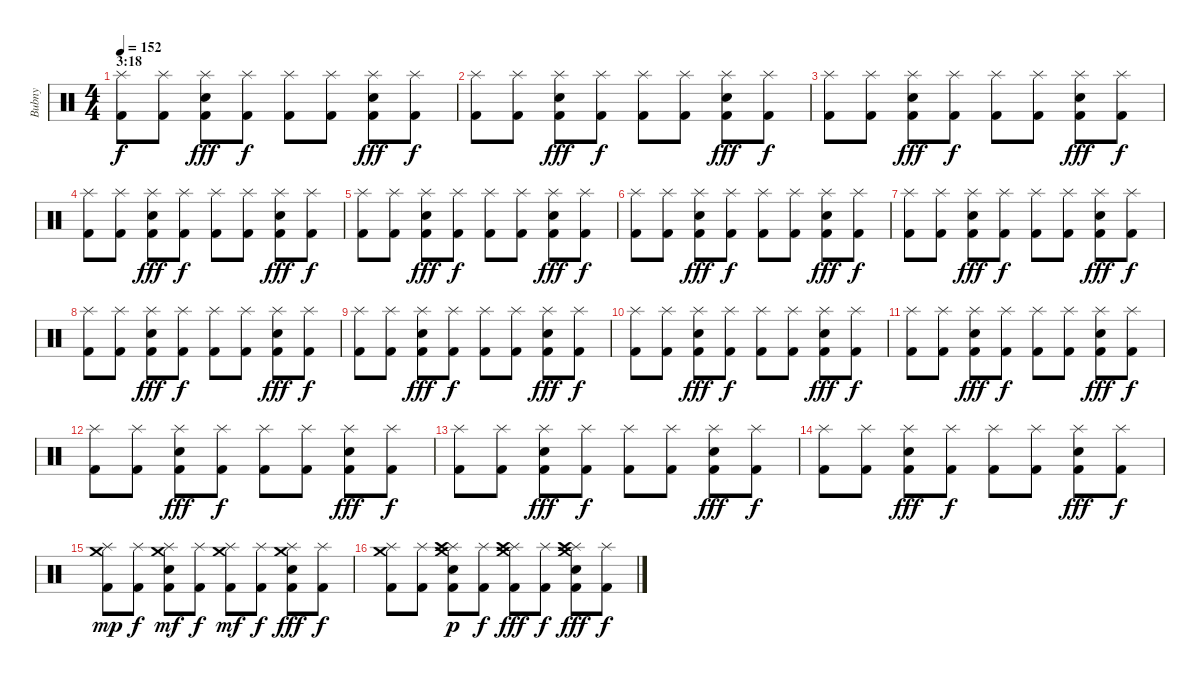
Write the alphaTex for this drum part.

\track ("Bubny" "Bubny") {instrument percussion}
\staff {score}
\articulation defaults
\ts (4 4)
\section ("" "3:18")
\tempo 152
\clef neutral
\ks c
("Splash (hit)" "Kick (hit) 2").8{dy f} ("Splash (hit)" "Kick (hit) 2").8 ("Splash (hit)" "Kick (hit) 2" "Snare (hit) 2").8{dy fff} ("Splash (hit)" "Kick (hit) 2").8{dy f} ("Splash (hit)" "Kick (hit) 2").8 ("Splash (hit)" "Kick (hit) 2").8 ("Splash (hit)" "Kick (hit) 2" "Snare (hit) 2").8{dy fff} ("Splash (hit)" "Kick (hit) 2").8{dy f} |
("Splash (hit)" "Kick (hit) 2").8 ("Splash (hit)" "Kick (hit) 2").8 ("Splash (hit)" "Kick (hit) 2" "Snare (hit) 2").8{dy fff} ("Splash (hit)" "Kick (hit) 2").8{dy f} ("Splash (hit)" "Kick (hit) 2").8 ("Splash (hit)" "Kick (hit) 2").8 ("Splash (hit)" "Kick (hit) 2" "Snare (hit) 2").8{dy fff} ("Splash (hit)" "Kick (hit) 2").8{dy f} |
("Splash (hit)" "Kick (hit) 2").8 ("Splash (hit)" "Kick (hit) 2").8 ("Splash (hit)" "Kick (hit) 2" "Snare (hit) 2").8{dy fff} ("Splash (hit)" "Kick (hit) 2").8{dy f} ("Splash (hit)" "Kick (hit) 2").8 ("Splash (hit)" "Kick (hit) 2").8 ("Splash (hit)" "Kick (hit) 2" "Snare (hit) 2").8{dy fff} ("Splash (hit)" "Kick (hit) 2").8{dy f} |
("Splash (hit)" "Kick (hit) 2").8 ("Splash (hit)" "Kick (hit) 2").8 ("Splash (hit)" "Kick (hit) 2" "Snare (hit) 2").8{dy fff} ("Splash (hit)" "Kick (hit) 2").8{dy f} ("Splash (hit)" "Kick (hit) 2").8 ("Splash (hit)" "Kick (hit) 2").8 ("Splash (hit)" "Kick (hit) 2" "Snare (hit) 2").8{dy fff} ("Splash (hit)" "Kick (hit) 2").8{dy f} |
("Splash (hit)" "Kick (hit) 2").8 ("Splash (hit)" "Kick (hit) 2").8 ("Splash (hit)" "Kick (hit) 2" "Snare (hit) 2").8{dy fff} ("Splash (hit)" "Kick (hit) 2").8{dy f} ("Splash (hit)" "Kick (hit) 2").8 ("Splash (hit)" "Kick (hit) 2").8 ("Splash (hit)" "Kick (hit) 2" "Snare (hit) 2").8{dy fff} ("Splash (hit)" "Kick (hit) 2").8{dy f} |
("Splash (hit)" "Kick (hit) 2").8 ("Splash (hit)" "Kick (hit) 2").8 ("Splash (hit)" "Kick (hit) 2" "Snare (hit) 2").8{dy fff} ("Splash (hit)" "Kick (hit) 2").8{dy f} ("Splash (hit)" "Kick (hit) 2").8 ("Splash (hit)" "Kick (hit) 2").8 ("Splash (hit)" "Kick (hit) 2" "Snare (hit) 2").8{dy fff} ("Splash (hit)" "Kick (hit) 2").8{dy f} |
("Splash (hit)" "Kick (hit) 2").8 ("Splash (hit)" "Kick (hit) 2").8 ("Splash (hit)" "Kick (hit) 2" "Snare (hit) 2").8{dy fff} ("Splash (hit)" "Kick (hit) 2").8{dy f} ("Splash (hit)" "Kick (hit) 2").8 ("Splash (hit)" "Kick (hit) 2").8 ("Splash (hit)" "Kick (hit) 2" "Snare (hit) 2").8{dy fff} ("Splash (hit)" "Kick (hit) 2").8{dy f} |
("Splash (hit)" "Kick (hit) 2").8 ("Splash (hit)" "Kick (hit) 2").8 ("Splash (hit)" "Kick (hit) 2" "Snare (hit) 2").8{dy fff} ("Splash (hit)" "Kick (hit) 2").8{dy f} ("Splash (hit)" "Kick (hit) 2").8 ("Splash (hit)" "Kick (hit) 2").8 ("Splash (hit)" "Kick (hit) 2" "Snare (hit) 2").8{dy fff} ("Splash (hit)" "Kick (hit) 2").8{dy f} |
("Splash (hit)" "Kick (hit) 2").8 ("Splash (hit)" "Kick (hit) 2").8 ("Splash (hit)" "Kick (hit) 2" "Snare (hit) 2").8{dy fff} ("Splash (hit)" "Kick (hit) 2").8{dy f} ("Splash (hit)" "Kick (hit) 2").8 ("Splash (hit)" "Kick (hit) 2").8 ("Splash (hit)" "Kick (hit) 2" "Snare (hit) 2").8{dy fff} ("Splash (hit)" "Kick (hit) 2").8{dy f} |
("Splash (hit)" "Kick (hit) 2").8 ("Splash (hit)" "Kick (hit) 2").8 ("Splash (hit)" "Kick (hit) 2" "Snare (hit) 2").8{dy fff} ("Splash (hit)" "Kick (hit) 2").8{dy f} ("Splash (hit)" "Kick (hit) 2").8 ("Splash (hit)" "Kick (hit) 2").8 ("Splash (hit)" "Kick (hit) 2" "Snare (hit) 2").8{dy fff} ("Splash (hit)" "Kick (hit) 2").8{dy f} |
("Splash (hit)" "Kick (hit) 2").8 ("Splash (hit)" "Kick (hit) 2").8 ("Splash (hit)" "Kick (hit) 2" "Snare (hit) 2").8{dy fff} ("Splash (hit)" "Kick (hit) 2").8{dy f} ("Splash (hit)" "Kick (hit) 2").8 ("Splash (hit)" "Kick (hit) 2").8 ("Splash (hit)" "Kick (hit) 2" "Snare (hit) 2").8{dy fff} ("Splash (hit)" "Kick (hit) 2").8{dy f} |
("Splash (hit)" "Kick (hit) 2").8 ("Splash (hit)" "Kick (hit) 2").8 ("Splash (hit)" "Kick (hit) 2" "Snare (hit) 2").8{dy fff} ("Splash (hit)" "Kick (hit) 2").8{dy f} ("Splash (hit)" "Kick (hit) 2").8 ("Splash (hit)" "Kick (hit) 2").8 ("Splash (hit)" "Kick (hit) 2" "Snare (hit) 2").8{dy fff} ("Splash (hit)" "Kick (hit) 2").8{dy f} |
("Splash (hit)" "Kick (hit) 2").8 ("Splash (hit)" "Kick (hit) 2").8 ("Splash (hit)" "Kick (hit) 2" "Snare (hit) 2").8{dy fff} ("Splash (hit)" "Kick (hit) 2").8{dy f} ("Splash (hit)" "Kick (hit) 2").8 ("Splash (hit)" "Kick (hit) 2").8 ("Splash (hit)" "Kick (hit) 2" "Snare (hit) 2").8{dy fff} ("Splash (hit)" "Kick (hit) 2").8{dy f} |
("Splash (hit)" "Kick (hit) 2").8 ("Splash (hit)" "Kick (hit) 2").8 ("Splash (hit)" "Kick (hit) 2" "Snare (hit) 2").8{dy fff} ("Splash (hit)" "Kick (hit) 2").8{dy f} ("Splash (hit)" "Kick (hit) 2").8 ("Splash (hit)" "Kick (hit) 2").8 ("Splash (hit)" "Kick (hit) 2" "Snare (hit) 2").8{dy fff} ("Splash (hit)" "Kick (hit) 2").8{dy f} |
("Splash (hit)" "Kick (hit) 2" "Crash medium (hit)").8{dy mp} ("Splash (hit)" "Kick (hit) 2").8{dy f} ("Splash (hit)" "Kick (hit) 2" "Snare (hit) 2" "Crash medium (hit)").8{dy mf} ("Splash (hit)" "Kick (hit) 2").8{dy f} ("Splash (hit)" "Kick (hit) 2" "Crash medium (hit)").8{dy mf} ("Splash (hit)" "Kick (hit) 2").8{dy f} ("Splash (hit)" "Kick (hit) 2" "Snare (hit) 2" "Crash medium (hit)").8{dy fff} ("Splash (hit)" "Kick (hit) 2").8{dy f} |
("Splash (hit)" "Kick (hit) 2" "Crash medium (hit)").8 ("Splash (hit)" "Kick (hit) 2").8 ("Splash (hit)" "Kick (hit) 2" "Snare (hit) 2" "Crash medium (hit)" "Crash high (hit)").8{dy p} ("Splash (hit)" "Kick (hit) 2").8{dy f} ("Splash (hit)" "Kick (hit) 2" "Crash medium (hit)" "Crash high (hit)").8{dy fff} ("Splash (hit)" "Kick (hit) 2").8{dy f} ("Splash (hit)" "Kick (hit) 2" "Snare (hit) 2" "Crash medium (hit)" "Crash high (hit)").8{dy fff} ("Splash (hit)" "Kick (hit) 2").8{dy f}
